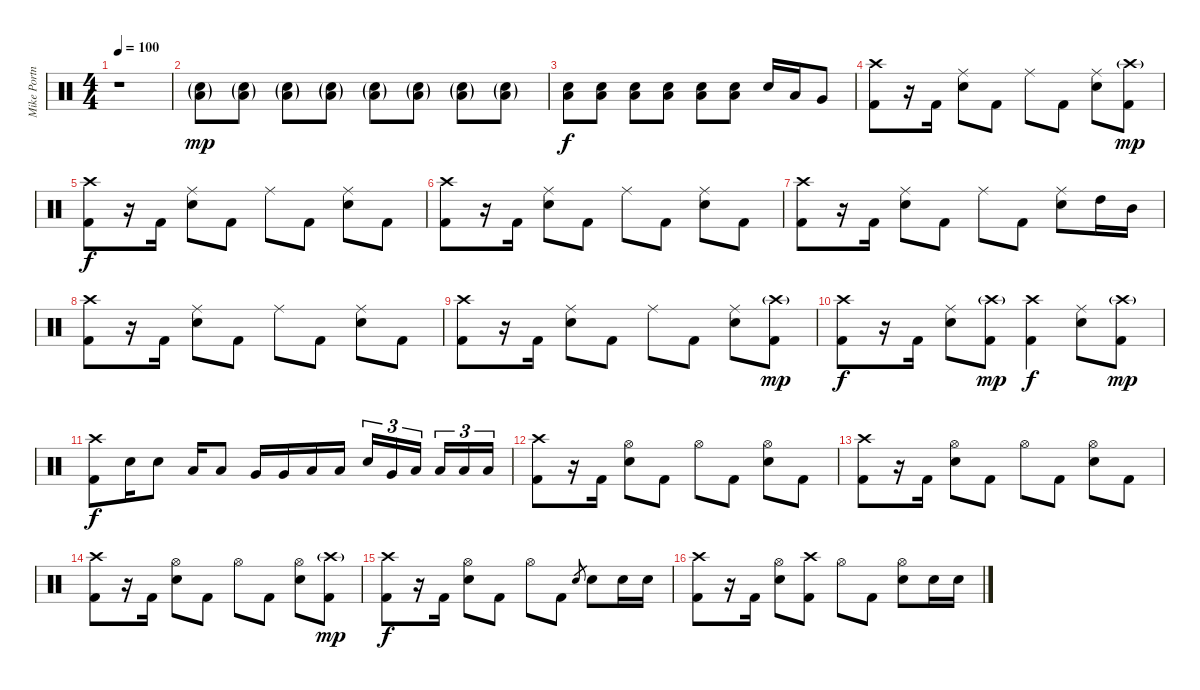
\track ("Mike Portnoy" "Mike Portn") {instrument percussion}
\staff {score}
\articulation defaults
\ts (4 4)
\tempo 100
\clef neutral
\ks c
r.1{dy f} |
("Electric Snare (hit)"{g} "Low Floor Tom (hit)"{g}).8{dy mp} ("Electric Snare (hit)"{g} "Low Floor Tom (hit)"{g}).8 ("Electric Snare (hit)"{g} "Low Floor Tom (hit)"{g}).8 ("Electric Snare (hit)"{g} "Low Floor Tom (hit)"{g}).8 ("Electric Snare (hit)"{g} "Low Floor Tom (hit)"{g}).8 ("Electric Snare (hit)"{g} "Low Floor Tom (hit)"{g}).8 ("Electric Snare (hit)"{g} "Low Floor Tom (hit)"{g}).8 ("Electric Snare (hit)"{g} "Low Floor Tom (hit)"{g}).8 |
("Electric Snare (hit)" "Low Floor Tom (hit)").8{dy f} ("Electric Snare (hit)" "Low Floor Tom (hit)").8 ("Electric Snare (hit)" "Low Floor Tom (hit)").8 ("Electric Snare (hit)" "Low Floor Tom (hit)").8 ("Electric Snare (hit)" "Low Floor Tom (hit)").8 ("Electric Snare (hit)" "Low Floor Tom (hit)").8 "Electric Snare (hit)".16 "Low Floor Tom (hit)".16 "Very Low Tom (hit)".8 |
("Crash high (hit)" "Kick (hit) 2").8 r.16 "Kick (hit) 2".16 ("Ride (middle)" "Electric Snare (hit)").8 "Kick (hit) 2".8 "Ride (middle)".8 "Kick (hit) 2".8 ("Ride (middle)" "Electric Snare (hit)").8 ("Crash high (hit)"{g} "Kick (hit) 2").8{dy mp} |
("Crash high (hit)" "Kick (hit) 2").8{dy f} r.16 "Kick (hit) 2".16 ("Ride (middle)" "Electric Snare (hit)").8 "Kick (hit) 2".8 "Ride (middle)".8 "Kick (hit) 2".8 ("Ride (middle)" "Electric Snare (hit)").8 "Kick (hit) 2".8 |
("Crash high (hit)" "Kick (hit) 2").8 r.16 "Kick (hit) 2".16 ("Ride (middle)" "Electric Snare (hit)").8 "Kick (hit) 2".8 "Ride (middle)".8 "Kick (hit) 2".8 ("Ride (middle)" "Electric Snare (hit)").8 "Kick (hit) 2".8 |
("Crash high (hit)" "Kick (hit) 2").8 r.16 "Kick (hit) 2".16 ("Ride (middle)" "Electric Snare (hit)").8 "Kick (hit) 2".8 "Ride (middle)".8 "Kick (hit) 2".8 ("Ride (middle)" "Electric Snare (hit)").8 "High Tom (hit)".16 "Mid Tom (hit)".16 |
("Crash high (hit)" "Kick (hit) 2").8 r.16 "Kick (hit) 2".16 ("Ride (middle)" "Electric Snare (hit)").8 "Kick (hit) 2".8 "Ride (middle)".8 "Kick (hit) 2".8 ("Ride (middle)" "Electric Snare (hit)").8 "Kick (hit) 2".8 |
("Crash high (hit)" "Kick (hit) 2").8 r.16 "Kick (hit) 2".16 ("Ride (middle)" "Electric Snare (hit)").8 "Kick (hit) 2".8 "Ride (middle)".8 "Kick (hit) 2".8 ("Ride (middle)" "Electric Snare (hit)").8 ("Crash high (hit)"{g} "Kick (hit) 2").8{dy mp} |
("Crash high (hit)" "Kick (hit) 2").8{dy f} r.16 "Kick (hit) 2".16 ("Ride (middle)" "Electric Snare (hit)").8 ("Crash high (hit)"{g} "Kick (hit) 2").8{dy mp} ("Crash high (hit)" "Kick (hit) 2").4{dy f} ("Ride (middle)" "Electric Snare (hit)").8 ("Crash high (hit)"{g} "Kick (hit) 2").8{dy mp} |
("Crash high (hit)" "Kick (hit) 2").8{dy f} "Electric Snare (hit)".16 "Electric Snare (hit)".8 "Low Tom (hit)".16 "Low Tom (hit)".8 "Very Low Tom (hit)".16 "Very Low Tom (hit)".16 "Low Floor Tom (hit)".16 "Low Floor Tom (hit)".16 "Electric Snare (hit)".16{tu (3 2)} "Very Low Tom (hit)".16{tu (3 2)} "Low Tom (hit)".16{tu (3 2)} "Low Tom (hit)".16{tu (3 2)} "Low Tom (hit)".16{tu (3 2)} "Low Floor Tom (hit)".16{tu (3 2)} |
("Crash high (hit)" "Kick (hit) 2").8 r.16 "Kick (hit) 2".16 ("Hi-Hat (open)" "Electric Snare (hit)").8 "Kick (hit) 2".8 "Hi-Hat (open)".8 "Kick (hit) 2".8 ("Hi-Hat (open)" "Electric Snare (hit)").8 "Kick (hit) 2".8 |
("Crash high (hit)" "Kick (hit) 2").8 r.16 "Kick (hit) 2".16 ("Hi-Hat (open)" "Electric Snare (hit)").8 "Kick (hit) 2".8 "Hi-Hat (open)".8 "Kick (hit) 2".8 ("Hi-Hat (open)" "Electric Snare (hit)").8 "Kick (hit) 2".8 |
("Crash high (hit)" "Kick (hit) 2").8 r.16 "Kick (hit) 2".16 ("Hi-Hat (open)" "Electric Snare (hit)").8 "Kick (hit) 2".8 "Hi-Hat (open)".8 "Kick (hit) 2".8 ("Hi-Hat (open)" "Electric Snare (hit)").8 ("Crash high (hit)"{g} "Kick (hit) 2").8{dy mp} |
("Crash high (hit)" "Kick (hit) 2").8{dy f} r.16 "Kick (hit) 2".16 ("Hi-Hat (open)" "Electric Snare (hit)").8 "Kick (hit) 2".8 "Hi-Hat (open)".8 "Kick (hit) 2".8 "Electric Snare (hit)".8{gr} "Electric Snare (hit)".8 "Electric Snare (hit)".16 "Electric Snare (hit)".16 |
("Crash high (hit)" "Kick (hit) 2").8 r.16 "Kick (hit) 2".16 ("Hi-Hat (open)" "Electric Snare (hit)").8 ("Crash high (hit)" "Kick (hit) 2").8 "Hi-Hat (open)".8 "Kick (hit) 2".8 ("Hi-Hat (open)" "Electric Snare (hit)").8 "Electric Snare (hit)".16 "Electric Snare (hit)".16
